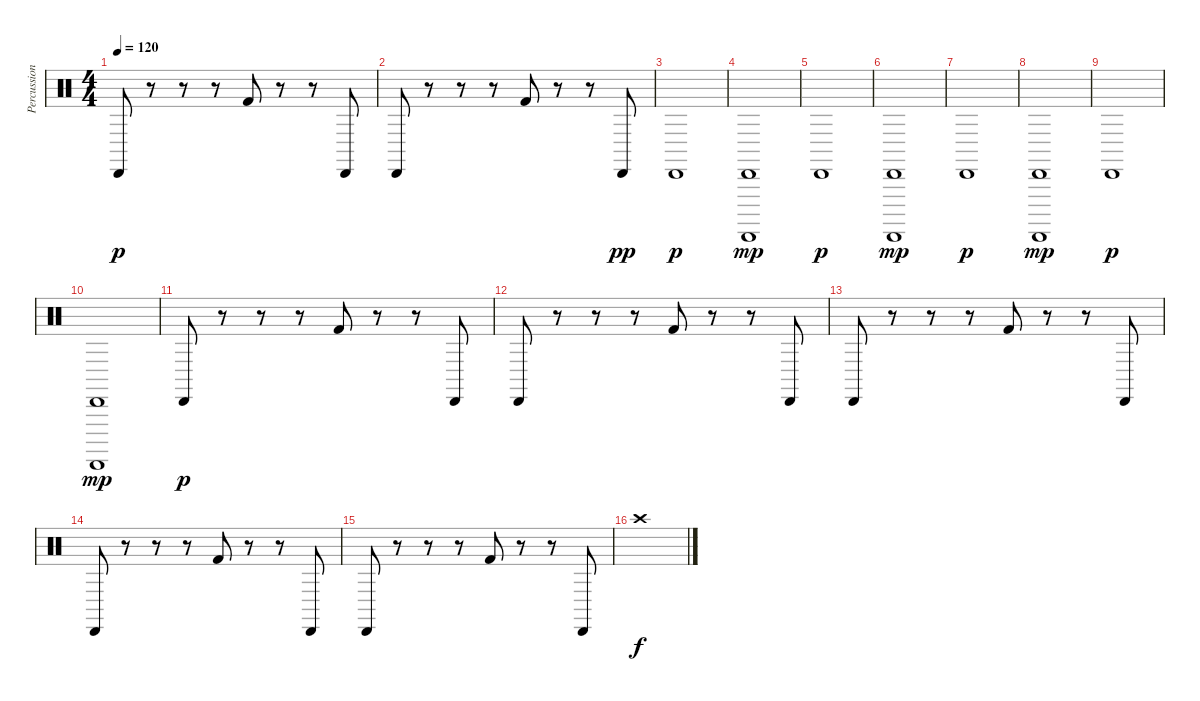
\track ("Percussions" "Percussion") {instrument percussion}
\staff {score}
\articulation defaults
\ts (4 4)
\tempo 120
\clef neutral
\ks c "Cabasa (hit)".8{dy p}
r.8 r.8 r.8 "Kick (hit) 2".8 r.8 r.8 "Cabasa (hit)".8 |
"Cabasa (hit)".8 r.8 r.8 r.8 "Kick (hit) 2".8 r.8 r.8 "Cabasa (hit)".8{dy pp} |
"Cabasa (hit)".1{dy p} |
("Cabasa (hit)" "Guiro (scrap-return)").1{dy mp} |
"Cabasa (hit)".1{dy p} |
("Cabasa (hit)" "Guiro (scrap-return)").1{dy mp} |
"Cabasa (hit)".1{dy p} |
("Cabasa (hit)" "Guiro (scrap-return)").1{dy mp} |
"Cabasa (hit)".1{dy p} |
("Cabasa (hit)" "Guiro (scrap-return)").1{dy mp} |
"Cabasa (hit)".8{dy p} r.8 r.8 r.8 "Kick (hit) 2".8 r.8 r.8 "Cabasa (hit)".8 |
"Cabasa (hit)".8 r.8 r.8 r.8 "Kick (hit) 2".8 r.8 r.8 "Cabasa (hit)".8 |
"Cabasa (hit)".8 r.8 r.8 r.8 "Kick (hit) 2".8 r.8 r.8 "Cabasa (hit)".8 |
"Cabasa (hit)".8 r.8 r.8 r.8 "Kick (hit) 2".8 r.8 r.8 "Cabasa (hit)".8 |
"Cabasa (hit)".8 r.8 r.8 r.8 "Kick (hit) 2".8 r.8 r.8 "Cabasa (hit)".8 |
"Crash high (hit)".1{dy f}
